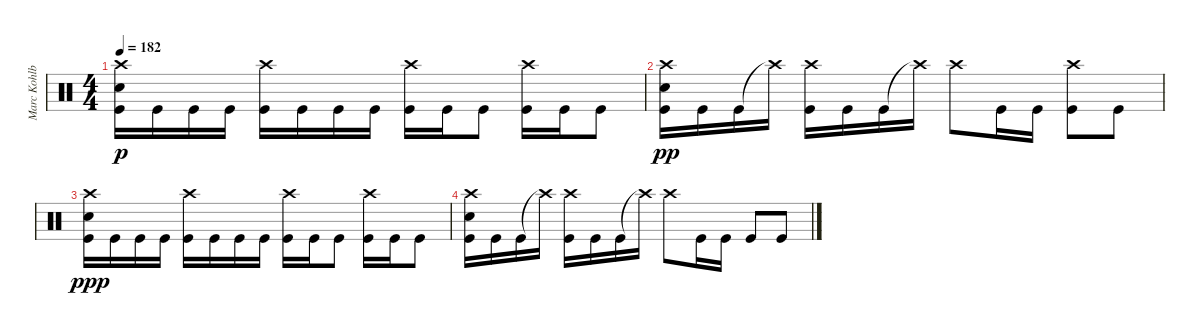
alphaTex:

\track ("Marc Kohlbry" "Marc Kohlb") {instrument percussion}
\staff {score}
\articulation defaults
\ts (4 4)
\tempo 182
\clef neutral
\ks c
("Crash high (hit)" "Electric Snare (hit)" "Kick (hit)").16{dy p} "Kick (hit)".16 "Kick (hit)".16 "Kick (hit)".16 ("Crash high (hit)" "Kick (hit)").16 "Kick (hit)".16 "Kick (hit)".16 "Kick (hit)".16 ("Crash high (hit)" "Kick (hit)").16 "Kick (hit)".16 "Kick (hit)".8 ("Crash high (hit)" "Kick (hit)").16 "Kick (hit)".16 "Kick (hit)".8 |
("Crash high (hit)" "Electric Snare (hit)" "Kick (hit)").16{dy pp} "Kick (hit)".16 "Kick (hit)".16 "Crash high (hit)"{t}.16 ("Crash high (hit)" "Kick (hit)").16 "Kick (hit)".16 "Kick (hit)".16 "Crash high (hit)"{t}.16 "Crash high (hit)".8 "Kick (hit)".16 "Kick (hit)".16 ("Crash high (hit)" "Kick (hit)").8 "Kick (hit)".8 |
("Crash high (hit)" "Electric Snare (hit)" "Kick (hit)").16{dy ppp} "Kick (hit)".16 "Kick (hit)".16 "Kick (hit)".16 ("Crash high (hit)" "Kick (hit)").16 "Kick (hit)".16 "Kick (hit)".16 "Kick (hit)".16 ("Crash high (hit)" "Kick (hit)").16 "Kick (hit)".16 "Kick (hit)".8 ("Crash high (hit)" "Kick (hit)").16 "Kick (hit)".16 "Kick (hit)".8 |
("Crash high (hit)" "Electric Snare (hit)" "Kick (hit)").16 "Kick (hit)".16 "Kick (hit)".16 "Crash high (hit)"{t}.16 ("Crash high (hit)" "Kick (hit)").16 "Kick (hit)".16 "Kick (hit)".16 "Crash high (hit)"{t}.16 "Crash high (hit)".8 "Kick (hit)".16 "Kick (hit)".16 "Kick (hit)".8 "Kick (hit)".8
